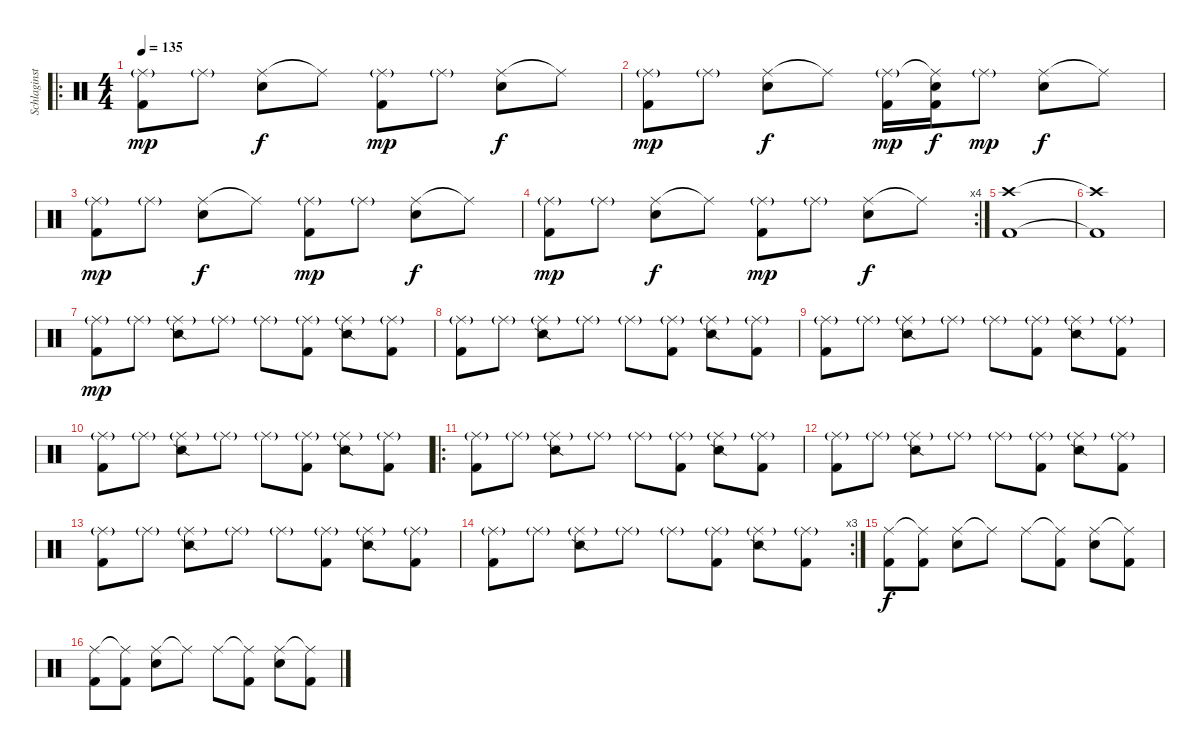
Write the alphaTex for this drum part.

\track ("Schlaginstrumente - Auswahl" "Schlaginst") {instrument percussion}
\staff {score}
\articulation defaults
\ro
\ts (4 4)
\tempo 135
\clef neutral
\ks c
("Ride (middle)"{g} "Kick (hit) 2").8{dy mp} "Ride (middle)"{g}.8 ("Ride (middle)" "Snare (hit) 2").8{dy f} "Ride (middle)"{t}.8 ("Ride (middle)"{g} "Kick (hit) 2").8{dy mp} "Ride (middle)"{g}.8 ("Ride (middle)" "Snare (hit) 2").8{dy f} "Ride (middle)"{t}.8 |
("Ride (middle)"{g} "Kick (hit) 2").8{dy mp} "Ride (middle)"{g}.8 ("Ride (middle)" "Snare (hit) 2").8{dy f} "Ride (middle)"{t}.8 ("Ride (middle)"{g} "Kick (hit) 2").16{dy mp} ("Ride (middle)"{t} "Snare (hit) 2" "Kick (hit) 2").16{dy f} "Ride (middle)"{g}.8{dy mp} ("Ride (middle)" "Snare (hit) 2").8{dy f} "Ride (middle)"{t}.8 |
("Ride (middle)"{g} "Kick (hit) 2").8{dy mp} "Ride (middle)"{g}.8 ("Ride (middle)" "Snare (hit) 2").8{dy f} "Ride (middle)"{t}.8 ("Ride (middle)"{g} "Kick (hit) 2").8{dy mp} "Ride (middle)"{g}.8 ("Ride (middle)" "Snare (hit) 2").8{dy f} "Ride (middle)"{t}.8 |
\rc 4
("Ride (middle)"{g} "Kick (hit) 2").8{dy mp} "Ride (middle)"{g}.8 ("Ride (middle)" "Snare (hit) 2").8{dy f} "Ride (middle)"{t}.8 ("Ride (middle)"{g} "Kick (hit) 2").8{dy mp} "Ride (middle)"{g}.8 ("Ride (middle)" "Snare (hit) 2").8{dy f} "Ride (middle)"{t}.8 |
("Crash high (hit)" "Kick (hit) 2").1 |
("Crash high (hit)"{t} "Kick (hit) 2"{t}).1 |
("Ride (middle)"{g} "Kick (hit) 2").8{dy mp} "Ride (middle)"{g}.8 ("Ride (middle)"{g} "Snare (side stick) 2").8 "Ride (middle)"{g}.8 "Ride (middle)"{g}.8 ("Ride (middle)"{g} "Kick (hit) 2").8 ("Ride (middle)"{g} "Snare (side stick) 2").8 ("Ride (middle)"{g} "Kick (hit) 2").8 |
("Ride (middle)"{g} "Kick (hit) 2").8 "Ride (middle)"{g}.8 ("Ride (middle)"{g} "Snare (side stick) 2").8 "Ride (middle)"{g}.8 "Ride (middle)"{g}.8 ("Ride (middle)"{g} "Kick (hit) 2").8 ("Ride (middle)"{g} "Snare (side stick) 2").8 ("Ride (middle)"{g} "Kick (hit) 2").8 |
("Ride (middle)"{g} "Kick (hit) 2").8 "Ride (middle)"{g}.8 ("Ride (middle)"{g} "Snare (side stick) 2").8 "Ride (middle)"{g}.8 "Ride (middle)"{g}.8 ("Ride (middle)"{g} "Kick (hit) 2").8 ("Ride (middle)"{g} "Snare (side stick) 2").8 ("Ride (middle)"{g} "Kick (hit) 2").8 |
("Ride (middle)"{g} "Kick (hit) 2").8 "Ride (middle)"{g}.8 ("Ride (middle)"{g} "Snare (side stick) 2").8 "Ride (middle)"{g}.8 "Ride (middle)"{g}.8 ("Ride (middle)"{g} "Kick (hit) 2").8 ("Ride (middle)"{g} "Snare (side stick) 2").8 ("Ride (middle)"{g} "Kick (hit) 2").8 |
\ro
("Ride (middle)"{g} "Kick (hit) 2").8 "Ride (middle)"{g}.8 ("Ride (middle)"{g} "Snare (side stick) 2").8 "Ride (middle)"{g}.8 "Ride (middle)"{g}.8 ("Ride (middle)"{g} "Kick (hit) 2").8 ("Ride (middle)"{g} "Snare (side stick) 2").8 ("Ride (middle)"{g} "Kick (hit) 2").8 |
("Ride (middle)"{g} "Kick (hit) 2").8 "Ride (middle)"{g}.8 ("Ride (middle)"{g} "Snare (side stick) 2").8 "Ride (middle)"{g}.8 "Ride (middle)"{g}.8 ("Ride (middle)"{g} "Kick (hit) 2").8 ("Ride (middle)"{g} "Snare (side stick) 2").8 ("Ride (middle)"{g} "Kick (hit) 2").8 |
("Ride (middle)"{g} "Kick (hit) 2").8 "Ride (middle)"{g}.8 ("Ride (middle)"{g} "Snare (side stick) 2").8 "Ride (middle)"{g}.8 "Ride (middle)"{g}.8 ("Ride (middle)"{g} "Kick (hit) 2").8 ("Ride (middle)"{g} "Snare (side stick) 2").8 ("Ride (middle)"{g} "Kick (hit) 2").8 |
\rc 3
("Ride (middle)"{g} "Kick (hit) 2").8 "Ride (middle)"{g}.8 ("Ride (middle)"{g} "Snare (side stick) 2").8 "Ride (middle)"{g}.8 "Ride (middle)"{g}.8 ("Ride (middle)"{g} "Kick (hit) 2").8 ("Ride (middle)"{g} "Snare (side stick) 2").8 ("Ride (middle)"{g} "Kick (hit) 2").8 |
("Ride (middle)" "Kick (hit) 2").8{dy f} ("Ride (middle)"{t} "Kick (hit) 2").8 ("Ride (middle)" "Snare (hit) 2").8 "Ride (middle)"{t}.8 "Ride (middle)".8 ("Ride (middle)"{t} "Kick (hit) 2").8 ("Ride (middle)" "Snare (hit) 2").8 ("Ride (middle)"{t} "Kick (hit) 2").8 |
("Ride (middle)" "Kick (hit) 2").8 ("Ride (middle)"{t} "Kick (hit) 2").8 ("Ride (middle)" "Snare (hit) 2").8 "Ride (middle)"{t}.8 "Ride (middle)".8 ("Ride (middle)"{t} "Kick (hit) 2").8 ("Ride (middle)" "Snare (hit) 2").8 ("Ride (middle)"{t} "Kick (hit) 2").8
